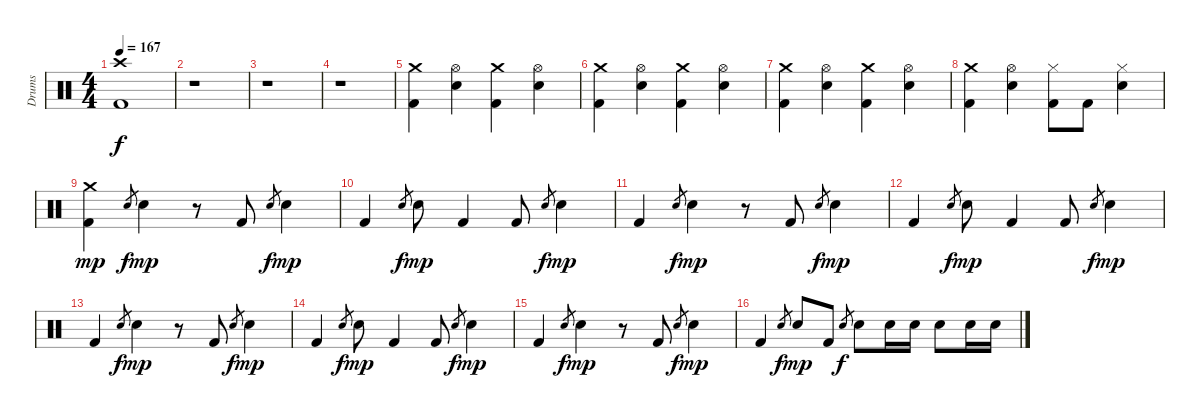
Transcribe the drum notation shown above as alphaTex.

\track ("Drums" "Drums") {instrument percussion}
\staff {score}
\articulation defaults
\ts (4 4)
\tempo 167
\clef neutral
\ks c
("Kick (hit) 2" "Crash high (hit)").1{dy f} |
r.1 |
r.1 |
r.1 |
("Crash medium (hit)" "Kick (hit) 2").4 ("Hi-Hat (open)" "Snare (hit) 2").4 ("Kick (hit) 2" "Crash medium (hit)").4 ("Hi-Hat (open)" "Snare (hit) 2").4 |
("Crash medium (hit)" "Kick (hit) 2").4 ("Hi-Hat (open)" "Snare (hit) 2").4 ("Kick (hit) 2" "Crash medium (hit)").4 ("Hi-Hat (open)" "Snare (hit) 2").4 |
("Crash medium (hit)" "Kick (hit) 2").4 ("Hi-Hat (open)" "Snare (hit) 2").4 ("Kick (hit) 2" "Crash medium (hit)").4 ("Hi-Hat (open)" "Snare (hit) 2").4 |
("Crash medium (hit)" "Kick (hit) 2").4 ("Hi-Hat (open)" "Snare (hit) 2").4 ("Kick (hit) 2" "Hi-Hat (closed)").8 "Kick (hit) 2".8 ("Snare (hit) 2" "Hi-Hat (closed)").4 |
("Kick (hit) 2" "Crash medium (hit)").4{dy mp} "Snare (hit) 2".8{gr dy f} "Snare (hit) 2".4{dy mp} r.8 "Kick (hit) 2".8 "Snare (hit) 2".8{gr dy f} "Snare (hit) 2".4{dy mp} |
"Kick (hit) 2".4 "Snare (hit) 2".8{gr dy f} "Snare (hit) 2".8{dy mp} "Kick (hit) 2".4 "Kick (hit) 2".8 "Snare (hit) 2".8{gr dy f} "Snare (hit) 2".4{dy mp} |
"Kick (hit) 2".4 "Snare (hit) 2".8{gr dy f} "Snare (hit) 2".4{dy mp} r.8 "Kick (hit) 2".8 "Snare (hit) 2".8{gr dy f} "Snare (hit) 2".4{dy mp} |
"Kick (hit) 2".4 "Snare (hit) 2".8{gr dy f} "Snare (hit) 2".8{dy mp} "Kick (hit) 2".4 "Kick (hit) 2".8 "Snare (hit) 2".8{gr dy f} "Snare (hit) 2".4{dy mp} |
"Kick (hit) 2".4 "Snare (hit) 2".8{gr dy f} "Snare (hit) 2".4{dy mp} r.8 "Kick (hit) 2".8 "Snare (hit) 2".8{gr dy f} "Snare (hit) 2".4{dy mp} |
"Kick (hit) 2".4 "Snare (hit) 2".8{gr dy f} "Snare (hit) 2".8{dy mp} "Kick (hit) 2".4 "Kick (hit) 2".8 "Snare (hit) 2".8{gr dy f} "Snare (hit) 2".4{dy mp} |
"Kick (hit) 2".4 "Snare (hit) 2".8{gr dy f} "Snare (hit) 2".4{dy mp} r.8 "Kick (hit) 2".8 "Snare (hit) 2".8{gr dy f} "Snare (hit) 2".4{dy mp} |
"Kick (hit) 2".4 "Snare (hit) 2".8{gr dy f} "Snare (hit) 2".8{dy mp} "Kick (hit) 2".8 "Snare (hit) 2".8{gr dy f} "Snare (hit) 2".8 "Snare (hit) 2".16 "Snare (hit) 2".16 "Snare (hit) 2".8 "Snare (hit) 2".16 "Snare (hit) 2".16
